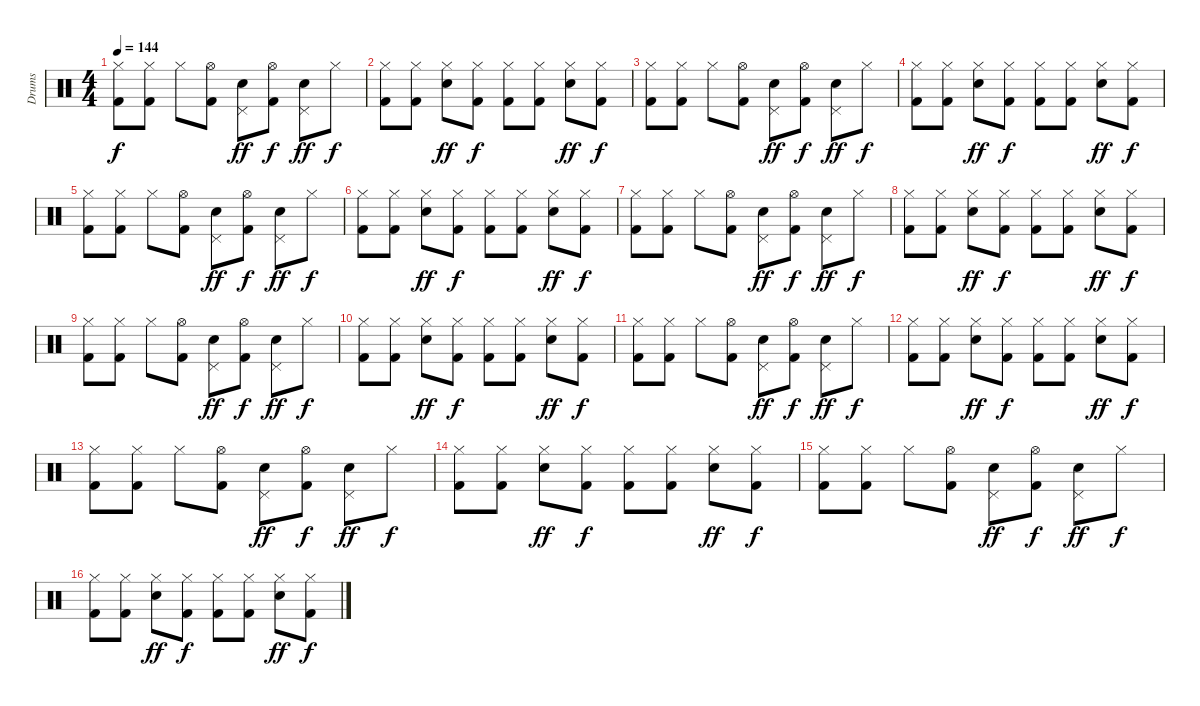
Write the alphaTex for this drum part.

\track ("Drums" "Drums") {instrument percussion}
\staff {score}
\articulation defaults
\ts (4 4)
\tempo 144
\clef neutral
\ks c
("Hi-Hat (closed)" "Kick (hit) 2").8{dy f} ("Hi-Hat (closed)" "Kick (hit) 2").8 "Hi-Hat (closed)".8 ("Hi-Hat (open)" "Kick (hit) 2").8 ("Pedal Hi-Hat (hit)" "Electric Snare (hit)").8{dy ff} ("Hi-Hat (open)" "Kick (hit) 2").8{dy f} ("Pedal Hi-Hat (hit)" "Electric Snare (hit)").8{dy ff} "Hi-Hat (closed)".8{dy f} |
("Hi-Hat (closed)" "Kick (hit) 2").8 ("Hi-Hat (closed)" "Kick (hit) 2").8 ("Hi-Hat (closed)" "Electric Snare (hit)").8{dy ff} ("Hi-Hat (closed)" "Kick (hit) 2").8{dy f} ("Hi-Hat (closed)" "Kick (hit) 2").8 ("Hi-Hat (closed)" "Kick (hit) 2").8 ("Hi-Hat (closed)" "Electric Snare (hit)").8{dy ff} ("Hi-Hat (closed)" "Kick (hit) 2").8{dy f} |
("Hi-Hat (closed)" "Kick (hit) 2").8 ("Hi-Hat (closed)" "Kick (hit) 2").8 "Hi-Hat (closed)".8 ("Hi-Hat (open)" "Kick (hit) 2").8 ("Pedal Hi-Hat (hit)" "Electric Snare (hit)").8{dy ff} ("Hi-Hat (open)" "Kick (hit) 2").8{dy f} ("Pedal Hi-Hat (hit)" "Electric Snare (hit)").8{dy ff} "Hi-Hat (closed)".8{dy f} |
("Hi-Hat (closed)" "Kick (hit) 2").8 ("Hi-Hat (closed)" "Kick (hit) 2").8 ("Hi-Hat (closed)" "Electric Snare (hit)").8{dy ff} ("Hi-Hat (closed)" "Kick (hit) 2").8{dy f} ("Hi-Hat (closed)" "Kick (hit) 2").8 ("Hi-Hat (closed)" "Kick (hit) 2").8 ("Hi-Hat (closed)" "Electric Snare (hit)").8{dy ff} ("Hi-Hat (closed)" "Kick (hit) 2").8{dy f} |
("Hi-Hat (closed)" "Kick (hit) 2").8 ("Hi-Hat (closed)" "Kick (hit) 2").8 "Hi-Hat (closed)".8 ("Hi-Hat (open)" "Kick (hit) 2").8 ("Pedal Hi-Hat (hit)" "Electric Snare (hit)").8{dy ff} ("Hi-Hat (open)" "Kick (hit) 2").8{dy f} ("Pedal Hi-Hat (hit)" "Electric Snare (hit)").8{dy ff} "Hi-Hat (closed)".8{dy f} |
("Hi-Hat (closed)" "Kick (hit) 2").8 ("Hi-Hat (closed)" "Kick (hit) 2").8 ("Hi-Hat (closed)" "Electric Snare (hit)").8{dy ff} ("Hi-Hat (closed)" "Kick (hit) 2").8{dy f} ("Hi-Hat (closed)" "Kick (hit) 2").8 ("Hi-Hat (closed)" "Kick (hit) 2").8 ("Hi-Hat (closed)" "Electric Snare (hit)").8{dy ff} ("Hi-Hat (closed)" "Kick (hit) 2").8{dy f} |
("Hi-Hat (closed)" "Kick (hit) 2").8 ("Hi-Hat (closed)" "Kick (hit) 2").8 "Hi-Hat (closed)".8 ("Hi-Hat (open)" "Kick (hit) 2").8 ("Pedal Hi-Hat (hit)" "Electric Snare (hit)").8{dy ff} ("Hi-Hat (open)" "Kick (hit) 2").8{dy f} ("Pedal Hi-Hat (hit)" "Electric Snare (hit)").8{dy ff} "Hi-Hat (closed)".8{dy f} |
("Hi-Hat (closed)" "Kick (hit) 2").8 ("Hi-Hat (closed)" "Kick (hit) 2").8 ("Hi-Hat (closed)" "Electric Snare (hit)").8{dy ff} ("Hi-Hat (closed)" "Kick (hit) 2").8{dy f} ("Hi-Hat (closed)" "Kick (hit) 2").8 ("Hi-Hat (closed)" "Kick (hit) 2").8 ("Hi-Hat (closed)" "Electric Snare (hit)").8{dy ff} ("Hi-Hat (closed)" "Kick (hit) 2").8{dy f} |
("Hi-Hat (closed)" "Kick (hit) 2").8 ("Hi-Hat (closed)" "Kick (hit) 2").8 "Hi-Hat (closed)".8 ("Hi-Hat (open)" "Kick (hit) 2").8 ("Pedal Hi-Hat (hit)" "Electric Snare (hit)").8{dy ff} ("Hi-Hat (open)" "Kick (hit) 2").8{dy f} ("Pedal Hi-Hat (hit)" "Electric Snare (hit)").8{dy ff} "Hi-Hat (closed)".8{dy f} |
("Hi-Hat (closed)" "Kick (hit) 2").8 ("Hi-Hat (closed)" "Kick (hit) 2").8 ("Hi-Hat (closed)" "Electric Snare (hit)").8{dy ff} ("Hi-Hat (closed)" "Kick (hit) 2").8{dy f} ("Hi-Hat (closed)" "Kick (hit) 2").8 ("Hi-Hat (closed)" "Kick (hit) 2").8 ("Hi-Hat (closed)" "Electric Snare (hit)").8{dy ff} ("Hi-Hat (closed)" "Kick (hit) 2").8{dy f} |
("Hi-Hat (closed)" "Kick (hit) 2").8 ("Hi-Hat (closed)" "Kick (hit) 2").8 "Hi-Hat (closed)".8 ("Hi-Hat (open)" "Kick (hit) 2").8 ("Pedal Hi-Hat (hit)" "Electric Snare (hit)").8{dy ff} ("Hi-Hat (open)" "Kick (hit) 2").8{dy f} ("Pedal Hi-Hat (hit)" "Electric Snare (hit)").8{dy ff} "Hi-Hat (closed)".8{dy f} |
("Hi-Hat (closed)" "Kick (hit) 2").8 ("Hi-Hat (closed)" "Kick (hit) 2").8 ("Hi-Hat (closed)" "Electric Snare (hit)").8{dy ff} ("Hi-Hat (closed)" "Kick (hit) 2").8{dy f} ("Hi-Hat (closed)" "Kick (hit) 2").8 ("Hi-Hat (closed)" "Kick (hit) 2").8 ("Hi-Hat (closed)" "Electric Snare (hit)").8{dy ff} ("Hi-Hat (closed)" "Kick (hit) 2").8{dy f} |
("Hi-Hat (closed)" "Kick (hit) 2").8 ("Hi-Hat (closed)" "Kick (hit) 2").8 "Hi-Hat (closed)".8 ("Hi-Hat (open)" "Kick (hit) 2").8 ("Pedal Hi-Hat (hit)" "Electric Snare (hit)").8{dy ff} ("Hi-Hat (open)" "Kick (hit) 2").8{dy f} ("Pedal Hi-Hat (hit)" "Electric Snare (hit)").8{dy ff} "Hi-Hat (closed)".8{dy f} |
("Hi-Hat (closed)" "Kick (hit) 2").8 ("Hi-Hat (closed)" "Kick (hit) 2").8 ("Hi-Hat (closed)" "Electric Snare (hit)").8{dy ff} ("Hi-Hat (closed)" "Kick (hit) 2").8{dy f} ("Hi-Hat (closed)" "Kick (hit) 2").8 ("Hi-Hat (closed)" "Kick (hit) 2").8 ("Hi-Hat (closed)" "Electric Snare (hit)").8{dy ff} ("Hi-Hat (closed)" "Kick (hit) 2").8{dy f} |
("Hi-Hat (closed)" "Kick (hit) 2").8 ("Hi-Hat (closed)" "Kick (hit) 2").8 "Hi-Hat (closed)".8 ("Hi-Hat (open)" "Kick (hit) 2").8 ("Pedal Hi-Hat (hit)" "Electric Snare (hit)").8{dy ff} ("Hi-Hat (open)" "Kick (hit) 2").8{dy f} ("Pedal Hi-Hat (hit)" "Electric Snare (hit)").8{dy ff} "Hi-Hat (closed)".8{dy f} |
("Hi-Hat (closed)" "Kick (hit) 2").8 ("Hi-Hat (closed)" "Kick (hit) 2").8 ("Hi-Hat (closed)" "Electric Snare (hit)").8{dy ff} ("Hi-Hat (closed)" "Kick (hit) 2").8{dy f} ("Hi-Hat (closed)" "Kick (hit) 2").8 ("Hi-Hat (closed)" "Kick (hit) 2").8 ("Hi-Hat (closed)" "Electric Snare (hit)").8{dy ff} ("Hi-Hat (closed)" "Kick (hit) 2").8{dy f}
